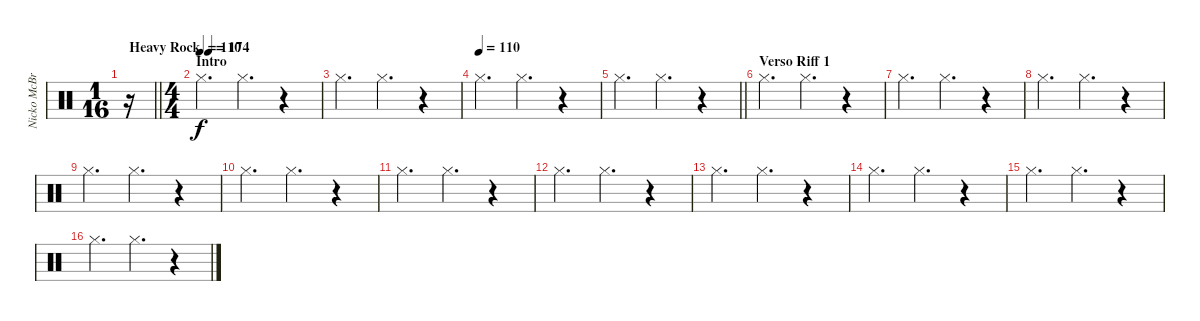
\track ("Nicko McBrain" "Nicko McBr") {instrument percussion}
\staff {score}
\articulation defaults
\ts (1 16)
\tempo (174 "Heavy Rock")
\clef neutral
\barLineRight lightlight
\ks c
r.16{dy f} |
\ts (4 4)
\section ("" "Intro")
\tempo (110)
"Hi-Hat (closed)".4{d} "Hi-Hat (closed)".4{d} r.4 |
"Hi-Hat (closed)".4{d} "Hi-Hat (closed)".4{d} r.4 |
\tempo (110)
"Hi-Hat (closed)".4{d} "Hi-Hat (closed)".4{d} r.4 |
\barLineRight lightlight "Hi-Hat (closed)".4{d} "Hi-Hat (closed)".4{d}
r.4 |
\section ("" "Verso Riff 1")
"Hi-Hat (closed)".4{d} "Hi-Hat (closed)".4{d} r.4 |
"Hi-Hat (closed)".4{d} "Hi-Hat (closed)".4{d} r.4 |
"Hi-Hat (closed)".4{d} "Hi-Hat (closed)".4{d} r.4 |
"Hi-Hat (closed)".4{d} "Hi-Hat (closed)".4{d} r.4 |
"Hi-Hat (closed)".4{d} "Hi-Hat (closed)".4{d} r.4 |
"Hi-Hat (closed)".4{d} "Hi-Hat (closed)".4{d} r.4 |
"Hi-Hat (closed)".4{d} "Hi-Hat (closed)".4{d} r.4 |
"Hi-Hat (closed)".4{d} "Hi-Hat (closed)".4{d} r.4 |
"Hi-Hat (closed)".4{d} "Hi-Hat (closed)".4{d} r.4 |
"Hi-Hat (closed)".4{d} "Hi-Hat (closed)".4{d} r.4 |
"Hi-Hat (closed)".4{d} "Hi-Hat (closed)".4{d} r.4
